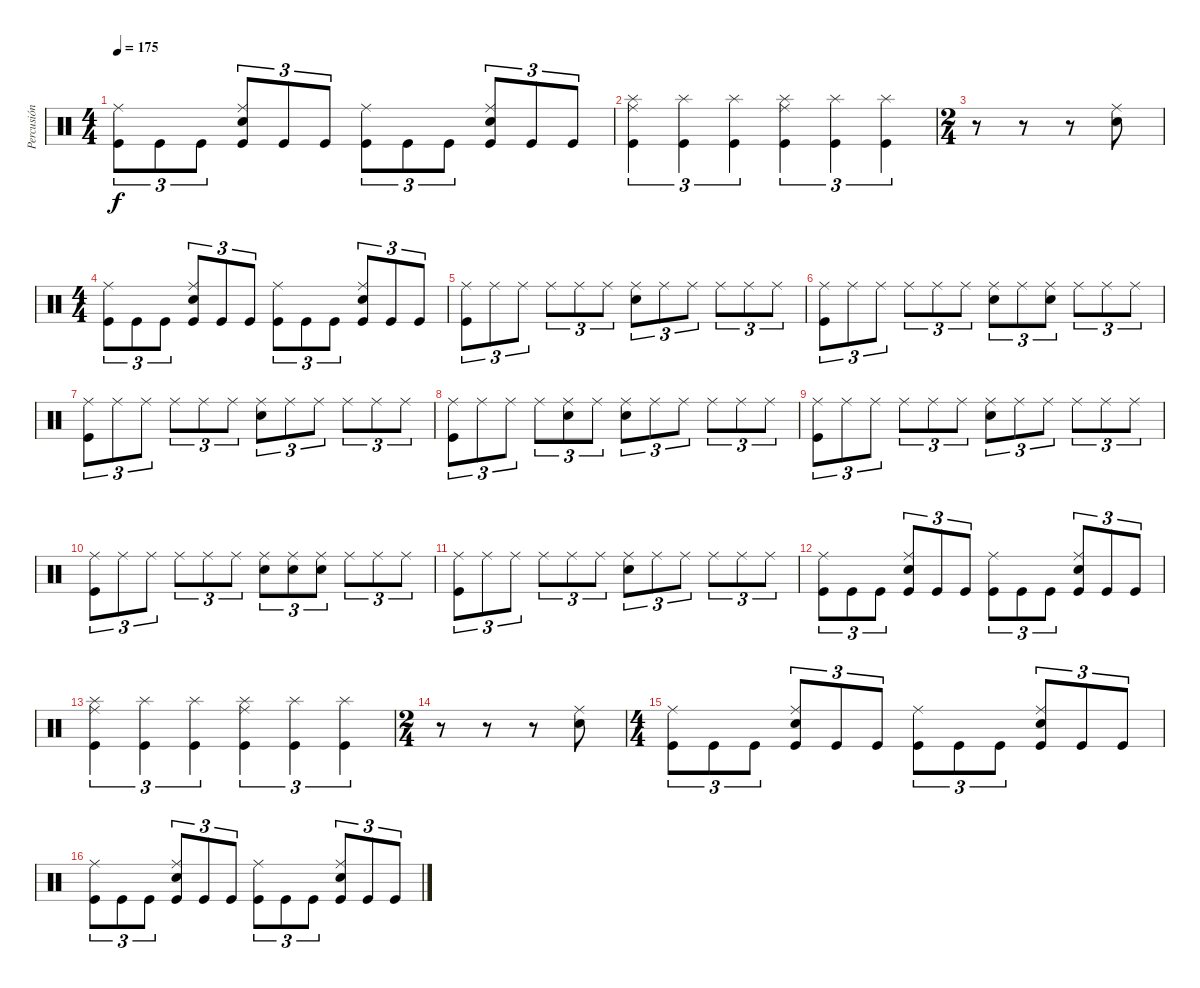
\track ("Percusión" "Percusión") {instrument percussion}
\staff {score}
\articulation defaults
\ts (4 4)
\tempo 175
\clef neutral
\ks c
("Kick (hit)" "Ride (middle)").8{tu (3 2) dy f} "Kick (hit)".8{tu (3 2)} "Kick (hit)".8{tu (3 2)} ("Kick (hit)" "Electric Snare (hit)" "Ride (middle)").8{tu (3 2)} "Kick (hit)".8{tu (3 2)} "Kick (hit)".8{tu (3 2)} ("Kick (hit)" "Ride (middle)").8{tu (3 2)} "Kick (hit)".8{tu (3 2)} "Kick (hit)".8{tu (3 2)} ("Kick (hit)" "Electric Snare (hit)" "Ride (middle)").8{tu (3 2)} "Kick (hit)".8{tu (3 2)} "Kick (hit)".8{tu (3 2)} |
("Splash (hit)" "Kick (hit)" "Ride (middle)").4{tu (3 2)} ("Splash (hit)" "Kick (hit)").4{tu (3 2)} ("Splash (hit)" "Kick (hit)").4{tu (3 2)} ("Splash (hit)" "Kick (hit)" "Ride (middle)").4{tu (3 2)} ("Splash (hit)" "Kick (hit)").4{tu (3 2)} ("Splash (hit)" "Kick (hit)").4{tu (3 2)} |
\ts (2 4)
r.8 r.8 r.8 ("Ride (middle)" "Electric Snare (hit)").8 |
\ts (4 4)
("Kick (hit)" "Ride (middle)").8{tu (3 2)} "Kick (hit)".8{tu (3 2)} "Kick (hit)".8{tu (3 2)} ("Kick (hit)" "Electric Snare (hit)" "Ride (middle)").8{tu (3 2)} "Kick (hit)".8{tu (3 2)} "Kick (hit)".8{tu (3 2)} ("Kick (hit)" "Ride (middle)").8{tu (3 2)} "Kick (hit)".8{tu (3 2)} "Kick (hit)".8{tu (3 2)} ("Kick (hit)" "Electric Snare (hit)" "Ride (middle)").8{tu (3 2)} "Kick (hit)".8{tu (3 2)} "Kick (hit)".8{tu (3 2)} |
("Ride (middle)" "Kick (hit)").8{tu (3 2)} "Ride (middle)".8{tu (3 2)} "Ride (middle)".8{tu (3 2)} "Ride (middle)".8{tu (3 2)} "Ride (middle)".8{tu (3 2)} "Ride (middle)".8{tu (3 2)} ("Ride (middle)" "Electric Snare (hit)").8{tu (3 2)} "Ride (middle)".8{tu (3 2)} "Ride (middle)".8{tu (3 2)} "Ride (middle)".8{tu (3 2)} "Ride (middle)".8{tu (3 2)} "Ride (middle)".8{tu (3 2)} |
("Ride (middle)" "Kick (hit)").8{tu (3 2)} "Ride (middle)".8{tu (3 2)} "Ride (middle)".8{tu (3 2)} "Ride (middle)".8{tu (3 2)} "Ride (middle)".8{tu (3 2)} "Ride (middle)".8{tu (3 2)} ("Ride (middle)" "Electric Snare (hit)").8{tu (3 2)} "Ride (middle)".8{tu (3 2)} ("Ride (middle)" "Electric Snare (hit)").8{tu (3 2)} "Ride (middle)".8{tu (3 2)} "Ride (middle)".8{tu (3 2)} "Ride (middle)".8{tu (3 2)} |
("Ride (middle)" "Kick (hit)").8{tu (3 2)} "Ride (middle)".8{tu (3 2)} "Ride (middle)".8{tu (3 2)} "Ride (middle)".8{tu (3 2)} "Ride (middle)".8{tu (3 2)} "Ride (middle)".8{tu (3 2)} ("Ride (middle)" "Electric Snare (hit)").8{tu (3 2)} "Ride (middle)".8{tu (3 2)} "Ride (middle)".8{tu (3 2)} "Ride (middle)".8{tu (3 2)} "Ride (middle)".8{tu (3 2)} "Ride (middle)".8{tu (3 2)} |
("Ride (middle)" "Kick (hit)").8{tu (3 2)} "Ride (middle)".8{tu (3 2)} "Ride (middle)".8{tu (3 2)} "Ride (middle)".8{tu (3 2)} ("Ride (middle)" "Electric Snare (hit)").8{tu (3 2)} "Ride (middle)".8{tu (3 2)} ("Ride (middle)" "Electric Snare (hit)").8{tu (3 2)} "Ride (middle)".8{tu (3 2)} "Ride (middle)".8{tu (3 2)} "Ride (middle)".8{tu (3 2)} "Ride (middle)".8{tu (3 2)} "Ride (middle)".8{tu (3 2)} |
("Ride (middle)" "Kick (hit)").8{tu (3 2)} "Ride (middle)".8{tu (3 2)} "Ride (middle)".8{tu (3 2)} "Ride (middle)".8{tu (3 2)} "Ride (middle)".8{tu (3 2)} "Ride (middle)".8{tu (3 2)} ("Ride (middle)" "Electric Snare (hit)").8{tu (3 2)} "Ride (middle)".8{tu (3 2)} "Ride (middle)".8{tu (3 2)} "Ride (middle)".8{tu (3 2)} "Ride (middle)".8{tu (3 2)} "Ride (middle)".8{tu (3 2)} |
("Ride (middle)" "Kick (hit)").8{tu (3 2)} "Ride (middle)".8{tu (3 2)} "Ride (middle)".8{tu (3 2)} "Ride (middle)".8{tu (3 2)} "Ride (middle)".8{tu (3 2)} "Ride (middle)".8{tu (3 2)} ("Ride (middle)" "Electric Snare (hit)").8{tu (3 2)} ("Ride (middle)" "Electric Snare (hit)").8{tu (3 2)} ("Ride (middle)" "Electric Snare (hit)").8{tu (3 2)} "Ride (middle)".8{tu (3 2)} "Ride (middle)".8{tu (3 2)} "Ride (middle)".8{tu (3 2)} |
("Ride (middle)" "Kick (hit)").8{tu (3 2)} "Ride (middle)".8{tu (3 2)} "Ride (middle)".8{tu (3 2)} "Ride (middle)".8{tu (3 2)} "Ride (middle)".8{tu (3 2)} "Ride (middle)".8{tu (3 2)} ("Ride (middle)" "Electric Snare (hit)").8{tu (3 2)} "Ride (middle)".8{tu (3 2)} "Ride (middle)".8{tu (3 2)} "Ride (middle)".8{tu (3 2)} "Ride (middle)".8{tu (3 2)} "Ride (middle)".8{tu (3 2)} |
("Kick (hit)" "Ride (middle)").8{tu (3 2)} "Kick (hit)".8{tu (3 2)} "Kick (hit)".8{tu (3 2)} ("Kick (hit)" "Electric Snare (hit)" "Ride (middle)").8{tu (3 2)} "Kick (hit)".8{tu (3 2)} "Kick (hit)".8{tu (3 2)} ("Kick (hit)" "Ride (middle)").8{tu (3 2)} "Kick (hit)".8{tu (3 2)} "Kick (hit)".8{tu (3 2)} ("Kick (hit)" "Electric Snare (hit)" "Ride (middle)").8{tu (3 2)} "Kick (hit)".8{tu (3 2)} "Kick (hit)".8{tu (3 2)} |
("Splash (hit)" "Kick (hit)" "Ride (middle)").4{tu (3 2)} ("Splash (hit)" "Kick (hit)").4{tu (3 2)} ("Splash (hit)" "Kick (hit)").4{tu (3 2)} ("Splash (hit)" "Kick (hit)" "Ride (middle)").4{tu (3 2)} ("Splash (hit)" "Kick (hit)").4{tu (3 2)} ("Splash (hit)" "Kick (hit)").4{tu (3 2)} |
\ts (2 4)
r.8 r.8 r.8 ("Ride (middle)" "Electric Snare (hit)").8 |
\ts (4 4)
("Kick (hit)" "Ride (middle)").8{tu (3 2)} "Kick (hit)".8{tu (3 2)} "Kick (hit)".8{tu (3 2)} ("Kick (hit)" "Electric Snare (hit)" "Ride (middle)").8{tu (3 2)} "Kick (hit)".8{tu (3 2)} "Kick (hit)".8{tu (3 2)} ("Kick (hit)" "Ride (middle)").8{tu (3 2)} "Kick (hit)".8{tu (3 2)} "Kick (hit)".8{tu (3 2)} ("Kick (hit)" "Electric Snare (hit)" "Ride (middle)").8{tu (3 2)} "Kick (hit)".8{tu (3 2)} "Kick (hit)".8{tu (3 2)} |
("Kick (hit)" "Ride (middle)").8{tu (3 2)} "Kick (hit)".8{tu (3 2)} "Kick (hit)".8{tu (3 2)} ("Kick (hit)" "Electric Snare (hit)" "Ride (middle)").8{tu (3 2)} "Kick (hit)".8{tu (3 2)} "Kick (hit)".8{tu (3 2)} ("Kick (hit)" "Ride (middle)").8{tu (3 2)} "Kick (hit)".8{tu (3 2)} "Kick (hit)".8{tu (3 2)} ("Kick (hit)" "Electric Snare (hit)" "Ride (middle)").8{tu (3 2)} "Kick (hit)".8{tu (3 2)} "Kick (hit)".8{tu (3 2)}
